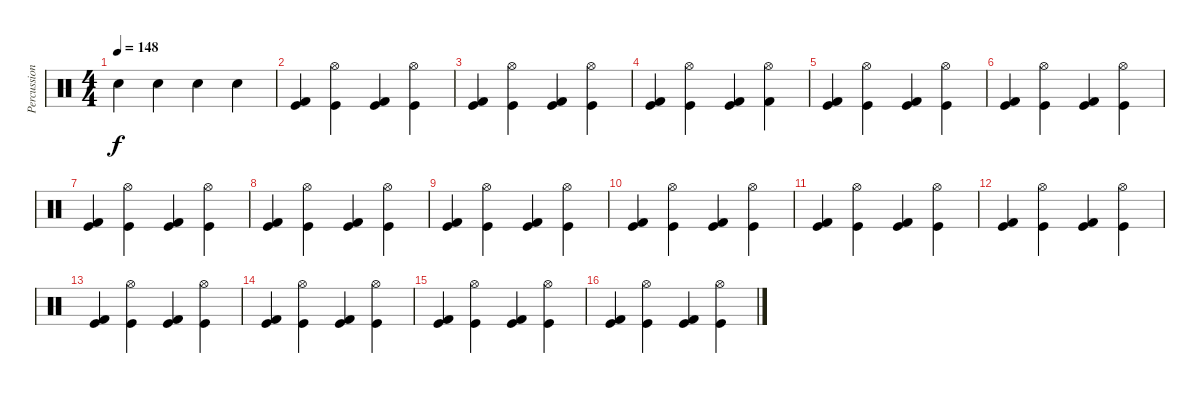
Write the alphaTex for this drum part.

\track ("Percussion" "Percussion") {instrument percussion}
\staff {score}
\articulation defaults
\ts (4 4)
\tempo 148
\clef neutral
\ks c "Hand Clap (hit)".4{dy f} "Hand Clap (hit)".4 "Hand Clap (hit)".4 "Hand Clap (hit)".4
|
("Kick (hit) 2" "Kick (hit)").4 ("Hi-Hat (open)" "Kick (hit)").4 ("Kick (hit) 2" "Kick (hit)").4 ("Hi-Hat (open)" "Kick (hit)").4 |
("Kick (hit) 2" "Kick (hit)").4 ("Hi-Hat (open)" "Kick (hit)").4 ("Kick (hit) 2" "Kick (hit)").4 ("Hi-Hat (open)" "Kick (hit)").4 |
("Kick (hit) 2" "Kick (hit)").4 ("Hi-Hat (open)" "Kick (hit)").4 ("Kick (hit) 2" "Kick (hit)").4 ("Hi-Hat (open)" "Kick (hit) 2").4 |
("Kick (hit) 2" "Kick (hit)").4 ("Hi-Hat (open)" "Kick (hit)").4 ("Kick (hit) 2" "Kick (hit)").4 ("Hi-Hat (open)" "Kick (hit)").4 |
("Kick (hit) 2" "Kick (hit)").4 ("Hi-Hat (open)" "Kick (hit)").4 ("Kick (hit) 2" "Kick (hit)").4 ("Hi-Hat (open)" "Kick (hit)").4 |
("Kick (hit) 2" "Kick (hit)").4 ("Hi-Hat (open)" "Kick (hit)").4 ("Kick (hit) 2" "Kick (hit)").4 ("Hi-Hat (open)" "Kick (hit)").4 |
("Kick (hit) 2" "Kick (hit)").4 ("Hi-Hat (open)" "Kick (hit)").4 ("Kick (hit) 2" "Kick (hit)").4 ("Hi-Hat (open)" "Kick (hit)").4 |
("Kick (hit) 2" "Kick (hit)").4 ("Hi-Hat (open)" "Kick (hit)").4 ("Kick (hit) 2" "Kick (hit)").4 ("Hi-Hat (open)" "Kick (hit)").4 |
("Kick (hit) 2" "Kick (hit)").4 ("Hi-Hat (open)" "Kick (hit)").4 ("Kick (hit) 2" "Kick (hit)").4 ("Hi-Hat (open)" "Kick (hit)").4 |
("Kick (hit) 2" "Kick (hit)").4 ("Hi-Hat (open)" "Kick (hit)").4 ("Kick (hit) 2" "Kick (hit)").4 ("Hi-Hat (open)" "Kick (hit)").4 |
("Kick (hit) 2" "Kick (hit)").4 ("Hi-Hat (open)" "Kick (hit)").4 ("Kick (hit) 2" "Kick (hit)").4 ("Hi-Hat (open)" "Kick (hit)").4 |
("Kick (hit) 2" "Kick (hit)").4 ("Hi-Hat (open)" "Kick (hit)").4 ("Kick (hit) 2" "Kick (hit)").4 ("Hi-Hat (open)" "Kick (hit)").4 |
("Kick (hit) 2" "Kick (hit)").4 ("Hi-Hat (open)" "Kick (hit)").4 ("Kick (hit) 2" "Kick (hit)").4 ("Hi-Hat (open)" "Kick (hit)").4 |
("Kick (hit) 2" "Kick (hit)").4 ("Hi-Hat (open)" "Kick (hit)").4 ("Kick (hit) 2" "Kick (hit)").4 ("Hi-Hat (open)" "Kick (hit)").4 |
("Kick (hit) 2" "Kick (hit)").4 ("Hi-Hat (open)" "Kick (hit)").4 ("Kick (hit) 2" "Kick (hit)").4 ("Hi-Hat (open)" "Kick (hit)").4
